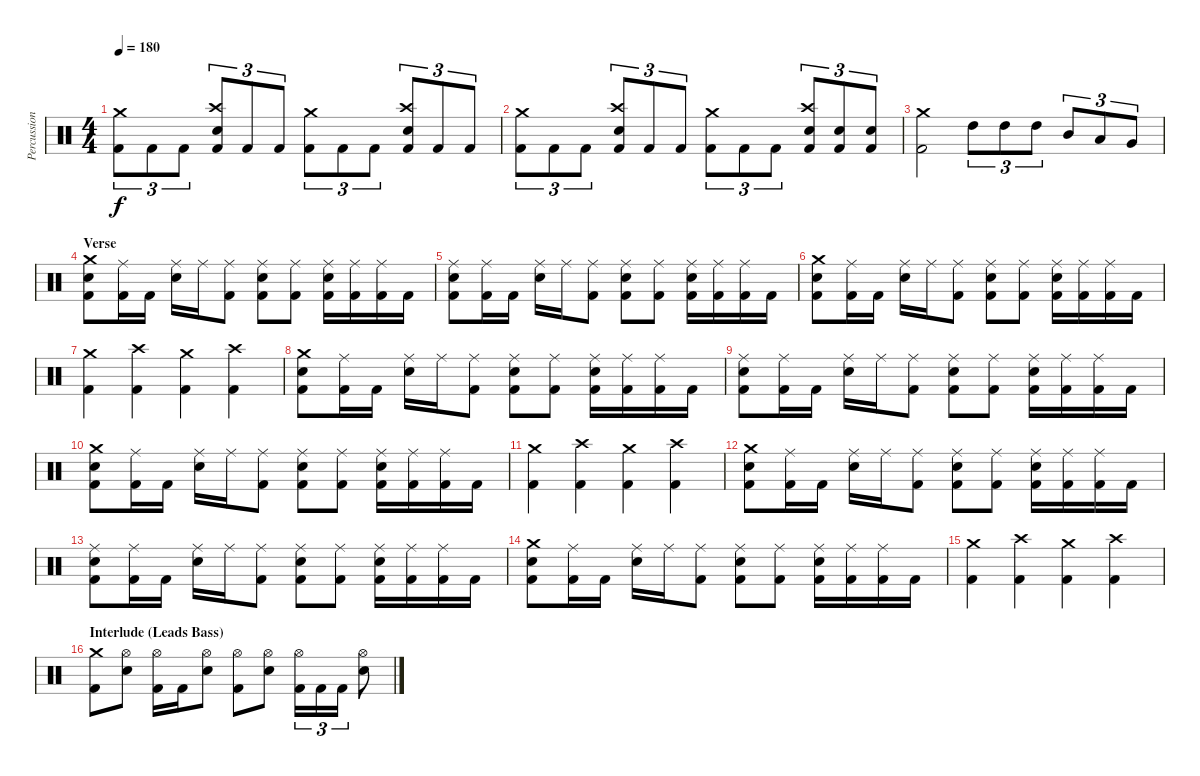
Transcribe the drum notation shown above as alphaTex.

\track ("Percussion" "Percussion") {instrument percussion}
\staff {score}
\articulation defaults
\ts (4 4)
\tempo 180
\clef neutral
\ks c
("Crash medium (hit)" "Kick (hit) 2").8{tu (3 2) dy f} "Kick (hit) 2".8{tu (3 2)} "Kick (hit) 2".8{tu (3 2)} ("Crash high (hit)" "Snare (hit) 2" "Kick (hit) 2").8{tu (3 2)} "Kick (hit) 2".8{tu (3 2)} "Kick (hit) 2".8{tu (3 2)} ("Crash medium (hit)" "Kick (hit) 2").8{tu (3 2)} "Kick (hit) 2".8{tu (3 2)} "Kick (hit) 2".8{tu (3 2)} ("Crash high (hit)" "Snare (hit) 2" "Kick (hit) 2").8{tu (3 2)} "Kick (hit) 2".8{tu (3 2)} "Kick (hit) 2".8{tu (3 2)} |
("Crash medium (hit)" "Kick (hit) 2").8{tu (3 2)} "Kick (hit) 2".8{tu (3 2)} "Kick (hit) 2".8{tu (3 2)} ("Crash high (hit)" "Snare (hit) 2" "Kick (hit) 2").8{tu (3 2)} "Kick (hit) 2".8{tu (3 2)} "Kick (hit) 2".8{tu (3 2)} ("Crash medium (hit)" "Kick (hit) 2").8{tu (3 2)} "Kick (hit) 2".8{tu (3 2)} "Kick (hit) 2".8{tu (3 2)} ("Crash high (hit)" "Snare (hit) 2" "Kick (hit) 2").8{tu (3 2)} ("Snare (hit) 2" "Kick (hit) 2").8{tu (3 2)} ("Snare (hit) 2" "Kick (hit) 2").8{tu (3 2)} |
("Crash medium (hit)" "Kick (hit) 2").2 "High Tom (hit)".8{tu (3 2)} "High Tom (hit)".8{tu (3 2)} "High Tom (hit)".8{tu (3 2)} "Mid Tom (hit)".8{tu (3 2)} "Low Tom (hit)".8{tu (3 2)} "Very Low Tom (hit)".8{tu (3 2)} |
\section ("" "Verse")
("Crash medium (hit)" "Snare (hit) 2" "Kick (hit) 2").8 ("Ride (middle)" "Kick (hit) 2").16 "Kick (hit) 2".16 ("Ride (middle)" "Snare (hit) 2").16 "Ride (middle)".16 ("Ride (middle)" "Kick (hit) 2").8 ("Ride (middle)" "Snare (hit) 2" "Kick (hit) 2").8 ("Ride (middle)" "Kick (hit) 2").8 ("Ride (middle)" "Snare (hit) 2" "Kick (hit) 2").16 ("Ride (middle)" "Kick (hit) 2").16 ("Ride (middle)" "Kick (hit) 2").16 "Kick (hit) 2".16 |
("Ride (middle)" "Snare (hit) 2" "Kick (hit) 2").8 ("Ride (middle)" "Kick (hit) 2").16 "Kick (hit) 2".16 ("Ride (middle)" "Snare (hit) 2").16 "Ride (middle)".16 ("Ride (middle)" "Kick (hit) 2").8 ("Ride (middle)" "Snare (hit) 2" "Kick (hit) 2").8 ("Ride (middle)" "Kick (hit) 2").8 ("Ride (middle)" "Snare (hit) 2" "Kick (hit) 2").16 ("Ride (middle)" "Kick (hit) 2").16 ("Ride (middle)" "Kick (hit) 2").16 "Kick (hit) 2".16 |
("Crash medium (hit)" "Snare (hit) 2" "Kick (hit) 2").8 ("Ride (middle)" "Kick (hit) 2").16 "Kick (hit) 2".16 ("Ride (middle)" "Snare (hit) 2").16 "Ride (middle)".16 ("Ride (middle)" "Kick (hit) 2").8 ("Ride (middle)" "Snare (hit) 2" "Kick (hit) 2").8 ("Ride (middle)" "Kick (hit) 2").8 ("Ride (middle)" "Snare (hit) 2" "Kick (hit) 2").16 ("Ride (middle)" "Kick (hit) 2").16 ("Ride (middle)" "Kick (hit) 2").16 "Kick (hit) 2".16 |
("Crash medium (hit)" "Kick (hit) 2").4 ("Crash high (hit)" "Kick (hit) 2").4 ("Crash medium (hit)" "Kick (hit) 2").4 ("Crash high (hit)" "Kick (hit) 2").4 |
("Crash medium (hit)" "Snare (hit) 2" "Kick (hit) 2").8 ("Ride (middle)" "Kick (hit) 2").16 "Kick (hit) 2".16 ("Ride (middle)" "Snare (hit) 2").16 "Ride (middle)".16 ("Ride (middle)" "Kick (hit) 2").8 ("Ride (middle)" "Snare (hit) 2" "Kick (hit) 2").8 ("Ride (middle)" "Kick (hit) 2").8 ("Ride (middle)" "Snare (hit) 2" "Kick (hit) 2").16 ("Ride (middle)" "Kick (hit) 2").16 ("Ride (middle)" "Kick (hit) 2").16 "Kick (hit) 2".16 |
("Ride (middle)" "Snare (hit) 2" "Kick (hit) 2").8 ("Ride (middle)" "Kick (hit) 2").16 "Kick (hit) 2".16 ("Ride (middle)" "Snare (hit) 2").16 "Ride (middle)".16 ("Ride (middle)" "Kick (hit) 2").8 ("Ride (middle)" "Snare (hit) 2" "Kick (hit) 2").8 ("Ride (middle)" "Kick (hit) 2").8 ("Ride (middle)" "Snare (hit) 2" "Kick (hit) 2").16 ("Ride (middle)" "Kick (hit) 2").16 ("Ride (middle)" "Kick (hit) 2").16 "Kick (hit) 2".16 |
("Crash medium (hit)" "Snare (hit) 2" "Kick (hit) 2").8 ("Ride (middle)" "Kick (hit) 2").16 "Kick (hit) 2".16 ("Ride (middle)" "Snare (hit) 2").16 "Ride (middle)".16 ("Ride (middle)" "Kick (hit) 2").8 ("Ride (middle)" "Snare (hit) 2" "Kick (hit) 2").8 ("Ride (middle)" "Kick (hit) 2").8 ("Ride (middle)" "Snare (hit) 2" "Kick (hit) 2").16 ("Ride (middle)" "Kick (hit) 2").16 ("Ride (middle)" "Kick (hit) 2").16 "Kick (hit) 2".16 |
("Crash medium (hit)" "Kick (hit) 2").4 ("Crash high (hit)" "Kick (hit) 2").4 ("Crash medium (hit)" "Kick (hit) 2").4 ("Crash high (hit)" "Kick (hit) 2").4 |
("Crash medium (hit)" "Snare (hit) 2" "Kick (hit) 2").8 ("Ride (middle)" "Kick (hit) 2").16 "Kick (hit) 2".16 ("Ride (middle)" "Snare (hit) 2").16 "Ride (middle)".16 ("Ride (middle)" "Kick (hit) 2").8 ("Ride (middle)" "Snare (hit) 2" "Kick (hit) 2").8 ("Ride (middle)" "Kick (hit) 2").8 ("Ride (middle)" "Snare (hit) 2" "Kick (hit) 2").16 ("Ride (middle)" "Kick (hit) 2").16 ("Ride (middle)" "Kick (hit) 2").16 "Kick (hit) 2".16 |
("Ride (middle)" "Snare (hit) 2" "Kick (hit) 2").8 ("Ride (middle)" "Kick (hit) 2").16 "Kick (hit) 2".16 ("Ride (middle)" "Snare (hit) 2").16 "Ride (middle)".16 ("Ride (middle)" "Kick (hit) 2").8 ("Ride (middle)" "Snare (hit) 2" "Kick (hit) 2").8 ("Ride (middle)" "Kick (hit) 2").8 ("Ride (middle)" "Snare (hit) 2" "Kick (hit) 2").16 ("Ride (middle)" "Kick (hit) 2").16 ("Ride (middle)" "Kick (hit) 2").16 "Kick (hit) 2".16 |
("Crash medium (hit)" "Snare (hit) 2" "Kick (hit) 2").8 ("Ride (middle)" "Kick (hit) 2").16 "Kick (hit) 2".16 ("Ride (middle)" "Snare (hit) 2").16 "Ride (middle)".16 ("Ride (middle)" "Kick (hit) 2").8 ("Ride (middle)" "Snare (hit) 2" "Kick (hit) 2").8 ("Ride (middle)" "Kick (hit) 2").8 ("Ride (middle)" "Snare (hit) 2" "Kick (hit) 2").16 ("Ride (middle)" "Kick (hit) 2").16 ("Ride (middle)" "Kick (hit) 2").16 "Kick (hit) 2".16 |
("Crash medium (hit)" "Kick (hit) 2").4 ("Crash high (hit)" "Kick (hit) 2").4 ("Crash medium (hit)" "Kick (hit) 2").4 ("Crash high (hit)" "Kick (hit) 2").4 |
\section ("" "Interlude (Leads Bass)")
("Crash medium (hit)" "Kick (hit) 2").8 ("Hi-Hat (open)" "Snare (hit) 2").8 ("Hi-Hat (open)" "Kick (hit) 2").16 "Kick (hit) 2".16 ("Hi-Hat (open)" "Snare (hit) 2").8 ("Hi-Hat (open)" "Kick (hit) 2").8 ("Hi-Hat (open)" "Snare (hit) 2").8 ("Hi-Hat (open)" "Kick (hit) 2").16{tu (3 2)} "Kick (hit) 2".16{tu (3 2)} "Kick (hit) 2".16{tu (3 2)} ("Hi-Hat (open)" "Snare (hit) 2").8
